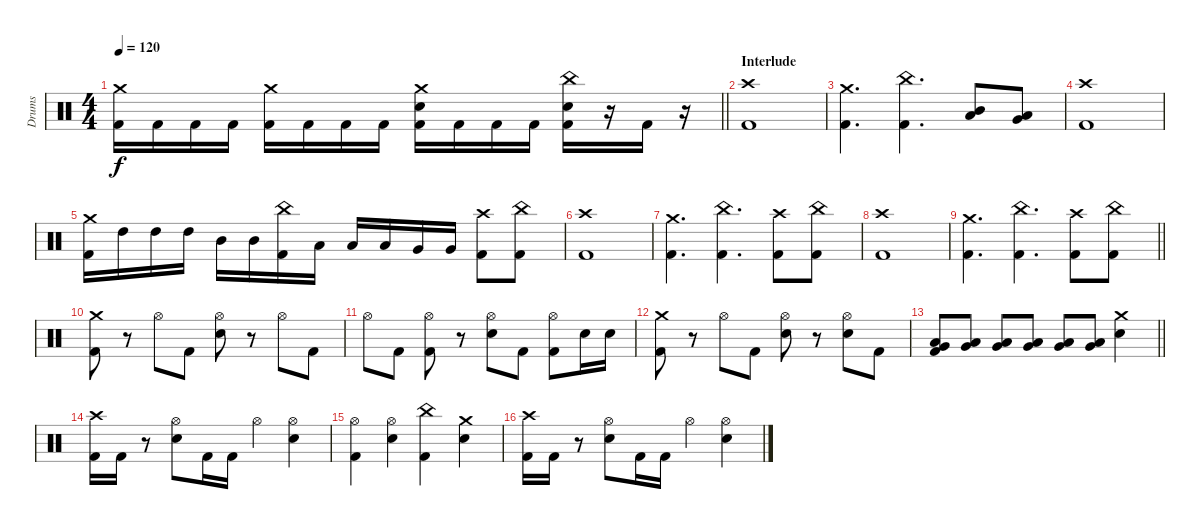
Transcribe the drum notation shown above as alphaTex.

\track ("Drums" "Drums") {instrument percussion}
\staff {score}
\articulation defaults
\ts (4 4)
\tempo 120
\clef neutral
\barLineRight lightlight
\ks c
("Crash medium (hit)" "Kick (hit) 2").16{dy f} "Kick (hit) 2".16 "Kick (hit) 2".16 "Kick (hit) 2".16 ("Crash medium (hit)" "Kick (hit) 2").16 "Kick (hit) 2".16 "Kick (hit) 2".16 "Kick (hit) 2".16 ("Crash medium (hit)" "Electric Snare (hit)" "Kick (hit) 2").16 "Kick (hit) 2".16 "Kick (hit) 2".16 "Kick (hit) 2".16 ("China (hit)" "Electric Snare (hit)" "Kick (hit) 2").16 r.16 "Kick (hit) 2".16 r.16 |
\section ("" "Interlude")
("Crash high (hit)" "Kick (hit) 2").1 |
("Crash medium (hit)" "Kick (hit) 2").4{d} ("China (hit)" "Kick (hit) 2").4{d} ("Mid Tom (hit)" "Low Tom (hit)").8 ("Low Tom (hit)" "Very Low Tom (hit)").8 |
("Crash high (hit)" "Kick (hit) 2").1 |
("Crash medium (hit)" "Kick (hit) 2").16 "High Tom (hit)".16 "High Tom (hit)".16 "High Tom (hit)".16 "Mid Tom (hit)".16 "Mid Tom (hit)".16 ("China (hit)" "Kick (hit) 2").16 "Low Tom (hit)".16 "Low Tom (hit)".16 "Low Tom (hit)".16 "Very Low Tom (hit)".16 "Very Low Tom (hit)".16 ("Crash high (hit)" "Kick (hit) 2").8 ("China (hit)" "Kick (hit) 2").8 |
("Crash high (hit)" "Kick (hit) 2").1 |
("Crash medium (hit)" "Kick (hit) 2").4{d} ("China (hit)" "Kick (hit) 2").4{d} ("Crash high (hit)" "Kick (hit) 2").8 ("China (hit)" "Kick (hit) 2").8 |
("Crash high (hit)" "Kick (hit) 2").1 |
\barLineRight lightlight
("Crash medium (hit)" "Kick (hit) 2").4{d} ("China (hit)" "Kick (hit) 2").4{d} ("Crash high (hit)" "Kick (hit) 2").8 ("China (hit)" "Kick (hit) 2").8 |
\section ("" "")
("Crash medium (hit)" "Kick (hit) 2").8 r.8 "Hi-Hat (open)".8 "Kick (hit) 2".8 ("Hi-Hat (open)" "Electric Snare (hit)").8 r.8 "Hi-Hat (open)".8 "Kick (hit) 2".8 |
"Hi-Hat (open)".8 "Kick (hit) 2".8 ("Hi-Hat (open)" "Kick (hit) 2").8 r.8 ("Hi-Hat (open)" "Electric Snare (hit)").8 "Kick (hit) 2".8 ("Hi-Hat (open)" "Kick (hit) 2").8 "Electric Snare (hit)".16 "Electric Snare (hit)".16 |
("Crash medium (hit)" "Kick (hit) 2").8 r.8 "Hi-Hat (open)".8 "Kick (hit) 2".8 ("Hi-Hat (open)" "Electric Snare (hit)").8 r.8 ("Hi-Hat (open)" "Electric Snare (hit)").8 "Kick (hit) 2".8 |
\barLineRight lightlight
("Low Tom (hit)" "Very Low Tom (hit)" "Kick (hit) 2").8 ("Low Tom (hit)" "Very Low Tom (hit)").8 ("Low Tom (hit)" "Very Low Tom (hit)").8 ("Low Tom (hit)" "Very Low Tom (hit)").8 ("Low Tom (hit)" "Very Low Tom (hit)").8 ("Low Tom (hit)" "Very Low Tom (hit)").8 ("Crash medium (hit)" "Electric Snare (hit)").4 |
\section ("" "")
("Crash high (hit)" "Kick (hit) 2").16 "Kick (hit) 2".16 r.8 ("Hi-Hat (open)" "Electric Snare (hit)").8 "Kick (hit) 2".16 "Kick (hit) 2".16 "Hi-Hat (open)".4 ("Hi-Hat (open)" "Electric Snare (hit)").4 |
("Hi-Hat (open)" "Kick (hit) 2").4 ("Hi-Hat (open)" "Electric Snare (hit)").4 ("China (hit)" "Kick (hit) 2").4 ("Crash medium (hit)" "Electric Snare (hit)").4 |
("Crash high (hit)" "Kick (hit) 2").16 "Kick (hit) 2".16 r.8 ("Hi-Hat (open)" "Electric Snare (hit)").8 "Kick (hit) 2".16 "Kick (hit) 2".16 "Hi-Hat (open)".4 ("Hi-Hat (open)" "Electric Snare (hit)").4
